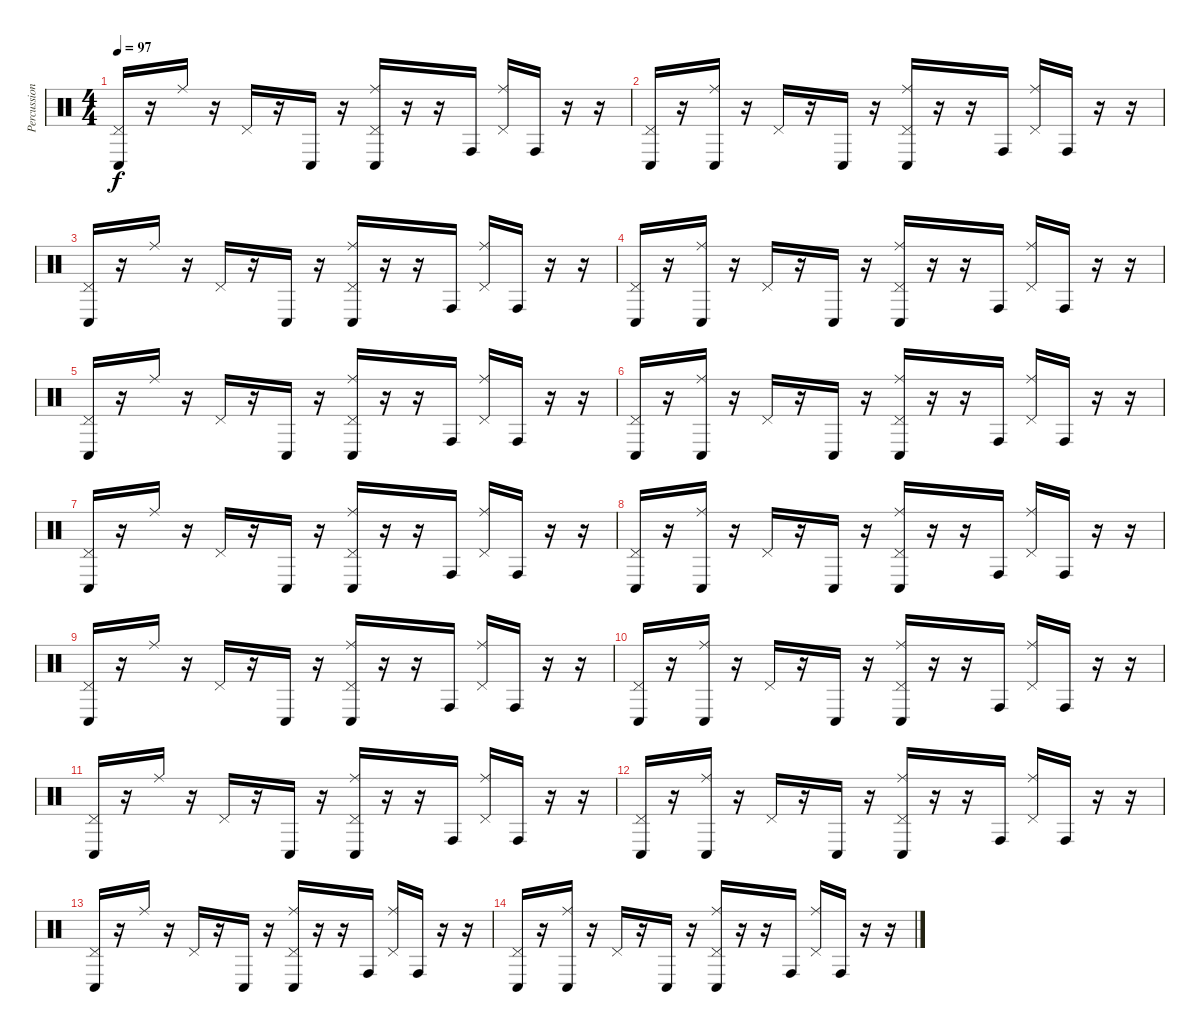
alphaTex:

\track ("Percussion" "Percussion") {instrument percussion}
\staff {score}
\articulation defaults
\ts (4 4)
\tempo 97
\clef neutral
\ks c
("Pedal Hi-Hat (hit)" "Conga low (hit)").16{dy f} r.16 "Ride (middle)".16 r.16 "Pedal Hi-Hat (hit)".16 r.16 "Conga low (hit)".16 r.16 ("Ride (middle)" "Pedal Hi-Hat (hit)" "Conga low (hit)").16 r.16 r.16 "Conga high (hit)".16 ("Ride (middle)" "Pedal Hi-Hat (hit)").16 "Conga high (hit)".16 r.16 r.16 |
("Pedal Hi-Hat (hit)" "Conga low (hit)").16 r.16 ("Ride (middle)" "Conga low (hit)").16 r.16 "Pedal Hi-Hat (hit)".16 r.16 "Conga low (hit)".16 r.16 ("Ride (middle)" "Pedal Hi-Hat (hit)" "Conga low (hit)").16 r.16 r.16 "Conga high (hit)".16 ("Ride (middle)" "Pedal Hi-Hat (hit)").16 "Conga high (hit)".16 r.16 r.16 |
("Pedal Hi-Hat (hit)" "Conga low (hit)").16 r.16 "Ride (middle)".16 r.16 "Pedal Hi-Hat (hit)".16 r.16 "Conga low (hit)".16 r.16 ("Ride (middle)" "Pedal Hi-Hat (hit)" "Conga low (hit)").16 r.16 r.16 "Conga high (hit)".16 ("Ride (middle)" "Pedal Hi-Hat (hit)").16 "Conga high (hit)".16 r.16 r.16 |
("Pedal Hi-Hat (hit)" "Conga low (hit)").16 r.16 ("Ride (middle)" "Conga low (hit)").16 r.16 "Pedal Hi-Hat (hit)".16 r.16 "Conga low (hit)".16 r.16 ("Ride (middle)" "Pedal Hi-Hat (hit)" "Conga low (hit)").16 r.16 r.16 "Conga high (hit)".16 ("Ride (middle)" "Pedal Hi-Hat (hit)").16 "Conga high (hit)".16 r.16 r.16 |
("Pedal Hi-Hat (hit)" "Conga low (hit)").16 r.16 "Ride (middle)".16 r.16 "Pedal Hi-Hat (hit)".16 r.16 "Conga low (hit)".16 r.16 ("Ride (middle)" "Pedal Hi-Hat (hit)" "Conga low (hit)").16 r.16 r.16 "Conga high (hit)".16 ("Ride (middle)" "Pedal Hi-Hat (hit)").16 "Conga high (hit)".16 r.16 r.16 |
("Pedal Hi-Hat (hit)" "Conga low (hit)").16 r.16 ("Ride (middle)" "Conga low (hit)").16 r.16 "Pedal Hi-Hat (hit)".16 r.16 "Conga low (hit)".16 r.16 ("Ride (middle)" "Pedal Hi-Hat (hit)" "Conga low (hit)").16 r.16 r.16 "Conga high (hit)".16 ("Ride (middle)" "Pedal Hi-Hat (hit)").16 "Conga high (hit)".16 r.16 r.16 |
("Pedal Hi-Hat (hit)" "Conga low (hit)").16 r.16 "Ride (middle)".16 r.16 "Pedal Hi-Hat (hit)".16 r.16 "Conga low (hit)".16 r.16 ("Ride (middle)" "Pedal Hi-Hat (hit)" "Conga low (hit)").16 r.16 r.16 "Conga high (hit)".16 ("Ride (middle)" "Pedal Hi-Hat (hit)").16 "Conga high (hit)".16 r.16 r.16 |
("Pedal Hi-Hat (hit)" "Conga low (hit)").16 r.16 ("Ride (middle)" "Conga low (hit)").16 r.16 "Pedal Hi-Hat (hit)".16 r.16 "Conga low (hit)".16 r.16 ("Ride (middle)" "Pedal Hi-Hat (hit)" "Conga low (hit)").16 r.16 r.16 "Conga high (hit)".16 ("Ride (middle)" "Pedal Hi-Hat (hit)").16 "Conga high (hit)".16 r.16 r.16 |
("Pedal Hi-Hat (hit)" "Conga low (hit)").16 r.16 "Ride (middle)".16 r.16 "Pedal Hi-Hat (hit)".16 r.16 "Conga low (hit)".16 r.16 ("Ride (middle)" "Pedal Hi-Hat (hit)" "Conga low (hit)").16 r.16 r.16 "Conga high (hit)".16 ("Ride (middle)" "Pedal Hi-Hat (hit)").16 "Conga high (hit)".16 r.16 r.16 |
("Pedal Hi-Hat (hit)" "Conga low (hit)").16 r.16 ("Ride (middle)" "Conga low (hit)").16 r.16 "Pedal Hi-Hat (hit)".16 r.16 "Conga low (hit)".16 r.16 ("Ride (middle)" "Pedal Hi-Hat (hit)" "Conga low (hit)").16 r.16 r.16 "Conga high (hit)".16 ("Ride (middle)" "Pedal Hi-Hat (hit)").16 "Conga high (hit)".16 r.16 r.16 |
("Pedal Hi-Hat (hit)" "Conga low (hit)").16 r.16 "Ride (middle)".16 r.16 "Pedal Hi-Hat (hit)".16 r.16 "Conga low (hit)".16 r.16 ("Ride (middle)" "Pedal Hi-Hat (hit)" "Conga low (hit)").16 r.16 r.16 "Conga high (hit)".16 ("Ride (middle)" "Pedal Hi-Hat (hit)").16 "Conga high (hit)".16 r.16 r.16 |
("Pedal Hi-Hat (hit)" "Conga low (hit)").16 r.16 ("Ride (middle)" "Conga low (hit)").16 r.16 "Pedal Hi-Hat (hit)".16 r.16 "Conga low (hit)".16 r.16 ("Ride (middle)" "Pedal Hi-Hat (hit)" "Conga low (hit)").16 r.16 r.16 "Conga high (hit)".16 ("Ride (middle)" "Pedal Hi-Hat (hit)").16 "Conga high (hit)".16 r.16 r.16 |
("Pedal Hi-Hat (hit)" "Conga low (hit)").16 r.16 "Ride (middle)".16 r.16 "Pedal Hi-Hat (hit)".16 r.16 "Conga low (hit)".16 r.16 ("Ride (middle)" "Pedal Hi-Hat (hit)" "Conga low (hit)").16 r.16 r.16 "Conga high (hit)".16 ("Ride (middle)" "Pedal Hi-Hat (hit)").16 "Conga high (hit)".16 r.16 r.16 |
("Pedal Hi-Hat (hit)" "Conga low (hit)").16 r.16 ("Ride (middle)" "Conga low (hit)").16 r.16 "Pedal Hi-Hat (hit)".16 r.16 "Conga low (hit)".16 r.16 ("Ride (middle)" "Pedal Hi-Hat (hit)" "Conga low (hit)").16 r.16 r.16 "Conga high (hit)".16 ("Ride (middle)" "Pedal Hi-Hat (hit)").16 "Conga high (hit)".16 r.16 r.16
